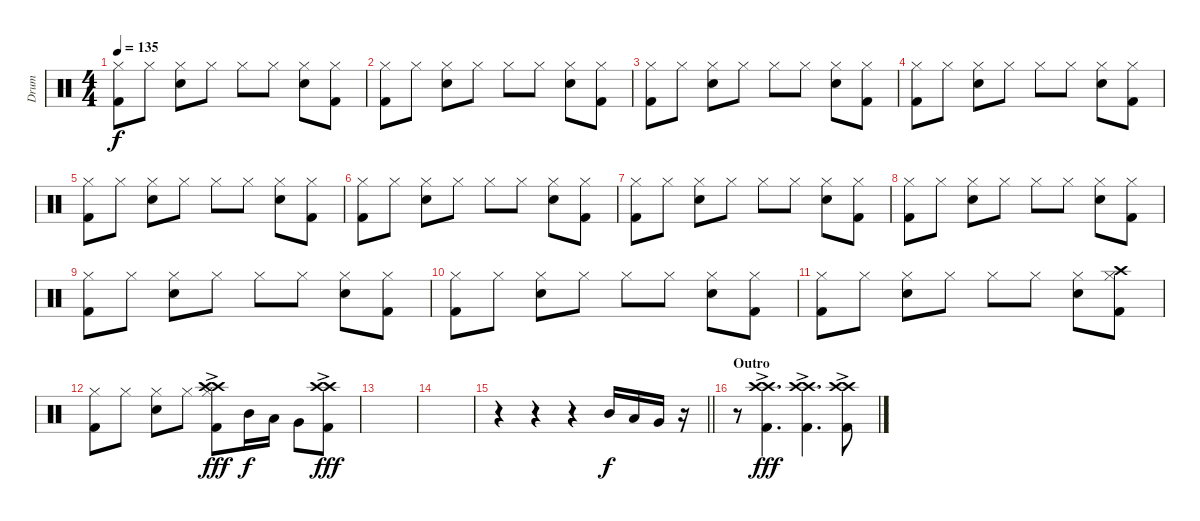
\track ("Drum" "Drum") {instrument percussion}
\staff {score}
\articulation defaults
\ts (4 4)
\tempo 135
\clef neutral
\ks c
("Hi-Hat (closed)" "Kick (hit) 2").8{dy f} "Hi-Hat (closed)".8 ("Snare (hit) 2" "Hi-Hat (closed)").8 "Hi-Hat (closed)".8 "Hi-Hat (closed)".8 "Hi-Hat (closed)".8 ("Snare (hit) 2" "Hi-Hat (closed)").8 ("Hi-Hat (closed)" "Kick (hit) 2").8 |
("Hi-Hat (closed)" "Kick (hit) 2").8 "Hi-Hat (closed)".8 ("Snare (hit) 2" "Hi-Hat (closed)").8 "Hi-Hat (closed)".8 "Hi-Hat (closed)".8 "Hi-Hat (closed)".8 ("Snare (hit) 2" "Hi-Hat (closed)").8 ("Hi-Hat (closed)" "Kick (hit) 2").8 |
("Hi-Hat (closed)" "Kick (hit) 2").8 "Hi-Hat (closed)".8 ("Snare (hit) 2" "Hi-Hat (closed)").8 "Hi-Hat (closed)".8 "Hi-Hat (closed)".8 "Hi-Hat (closed)".8 ("Snare (hit) 2" "Hi-Hat (closed)").8 ("Hi-Hat (closed)" "Kick (hit) 2").8 |
("Hi-Hat (closed)" "Kick (hit) 2").8 "Hi-Hat (closed)".8 ("Snare (hit) 2" "Hi-Hat (closed)").8 "Hi-Hat (closed)".8 "Hi-Hat (closed)".8 "Hi-Hat (closed)".8 ("Snare (hit) 2" "Hi-Hat (closed)").8 ("Hi-Hat (closed)" "Kick (hit) 2").8 |
("Hi-Hat (closed)" "Kick (hit) 2").8 "Hi-Hat (closed)".8 ("Snare (hit) 2" "Hi-Hat (closed)").8 "Hi-Hat (closed)".8 "Hi-Hat (closed)".8 "Hi-Hat (closed)".8 ("Snare (hit) 2" "Hi-Hat (closed)").8 ("Hi-Hat (closed)" "Kick (hit) 2").8 |
("Hi-Hat (closed)" "Kick (hit) 2").8 "Hi-Hat (closed)".8 ("Snare (hit) 2" "Hi-Hat (closed)").8 "Hi-Hat (closed)".8 "Hi-Hat (closed)".8 "Hi-Hat (closed)".8 ("Snare (hit) 2" "Hi-Hat (closed)").8 ("Hi-Hat (closed)" "Kick (hit) 2").8 |
("Hi-Hat (closed)" "Kick (hit) 2").8 "Hi-Hat (closed)".8 ("Snare (hit) 2" "Hi-Hat (closed)").8 "Hi-Hat (closed)".8 "Hi-Hat (closed)".8 "Hi-Hat (closed)".8 ("Snare (hit) 2" "Hi-Hat (closed)").8 ("Hi-Hat (closed)" "Kick (hit) 2").8 |
("Hi-Hat (closed)" "Kick (hit) 2").8 "Hi-Hat (closed)".8 ("Snare (hit) 2" "Hi-Hat (closed)").8 "Hi-Hat (closed)".8 "Hi-Hat (closed)".8 "Hi-Hat (closed)".8 ("Snare (hit) 2" "Hi-Hat (closed)").8 ("Hi-Hat (closed)" "Kick (hit) 2").8 |
("Hi-Hat (closed)" "Kick (hit) 2").8 "Hi-Hat (closed)".8 ("Snare (hit) 2" "Hi-Hat (closed)").8 "Hi-Hat (closed)".8 "Hi-Hat (closed)".8 "Hi-Hat (closed)".8 ("Snare (hit) 2" "Hi-Hat (closed)").8 ("Hi-Hat (closed)" "Kick (hit) 2").8 |
("Hi-Hat (closed)" "Kick (hit) 2").8 "Hi-Hat (closed)".8 ("Snare (hit) 2" "Hi-Hat (closed)").8 "Hi-Hat (closed)".8 "Hi-Hat (closed)".8 "Hi-Hat (closed)".8 ("Snare (hit) 2" "Hi-Hat (closed)").8 ("Hi-Hat (closed)" "Kick (hit) 2").8 |
("Hi-Hat (closed)" "Kick (hit) 2").8 "Hi-Hat (closed)".8 ("Snare (hit) 2" "Hi-Hat (closed)").8 "Hi-Hat (closed)".8 "Hi-Hat (closed)".8 "Hi-Hat (closed)".8 ("Snare (hit) 2" "Hi-Hat (closed)").8 ("Crash high (hit)" "Hi-Hat (closed)" "Kick (hit) 2").8 |
("Hi-Hat (closed)" "Kick (hit) 2").8 "Hi-Hat (closed)".8 ("Snare (hit) 2" "Hi-Hat (closed)").8 "Hi-Hat (closed)".8 ("Crash high (hit)"{ac} "Crash high (hit)"{ac} "Hi-Hat (closed)" "Kick (hit) 2").8{dy fff} "Mid Tom (hit)".16{dy f} "Low Tom (hit)".16 "Very Low Tom (hit)".8 ("Crash high (hit)"{ac} "Crash high (hit)"{ac} "Kick (hit) 2").8{dy fff} |
|
|
\barLineRight lightlight
r.4 r.4 r.4 "Mid Tom (hit)".16{dy f} "Low Tom (hit)".16 "Very Low Tom (hit)".16 r.16 |
\section ("" "Outro")
r.8 ("Crash high (hit)"{ac} "Crash high (hit)"{ac} "Kick (hit) 2"{ac}).4{d dy fff} ("Crash high (hit)"{ac} "Crash high (hit)"{ac} "Kick (hit) 2"{ac}).4{d} ("Crash high (hit)"{ac} "Crash high (hit)"{ac} "Kick (hit) 2"{ac}).8
